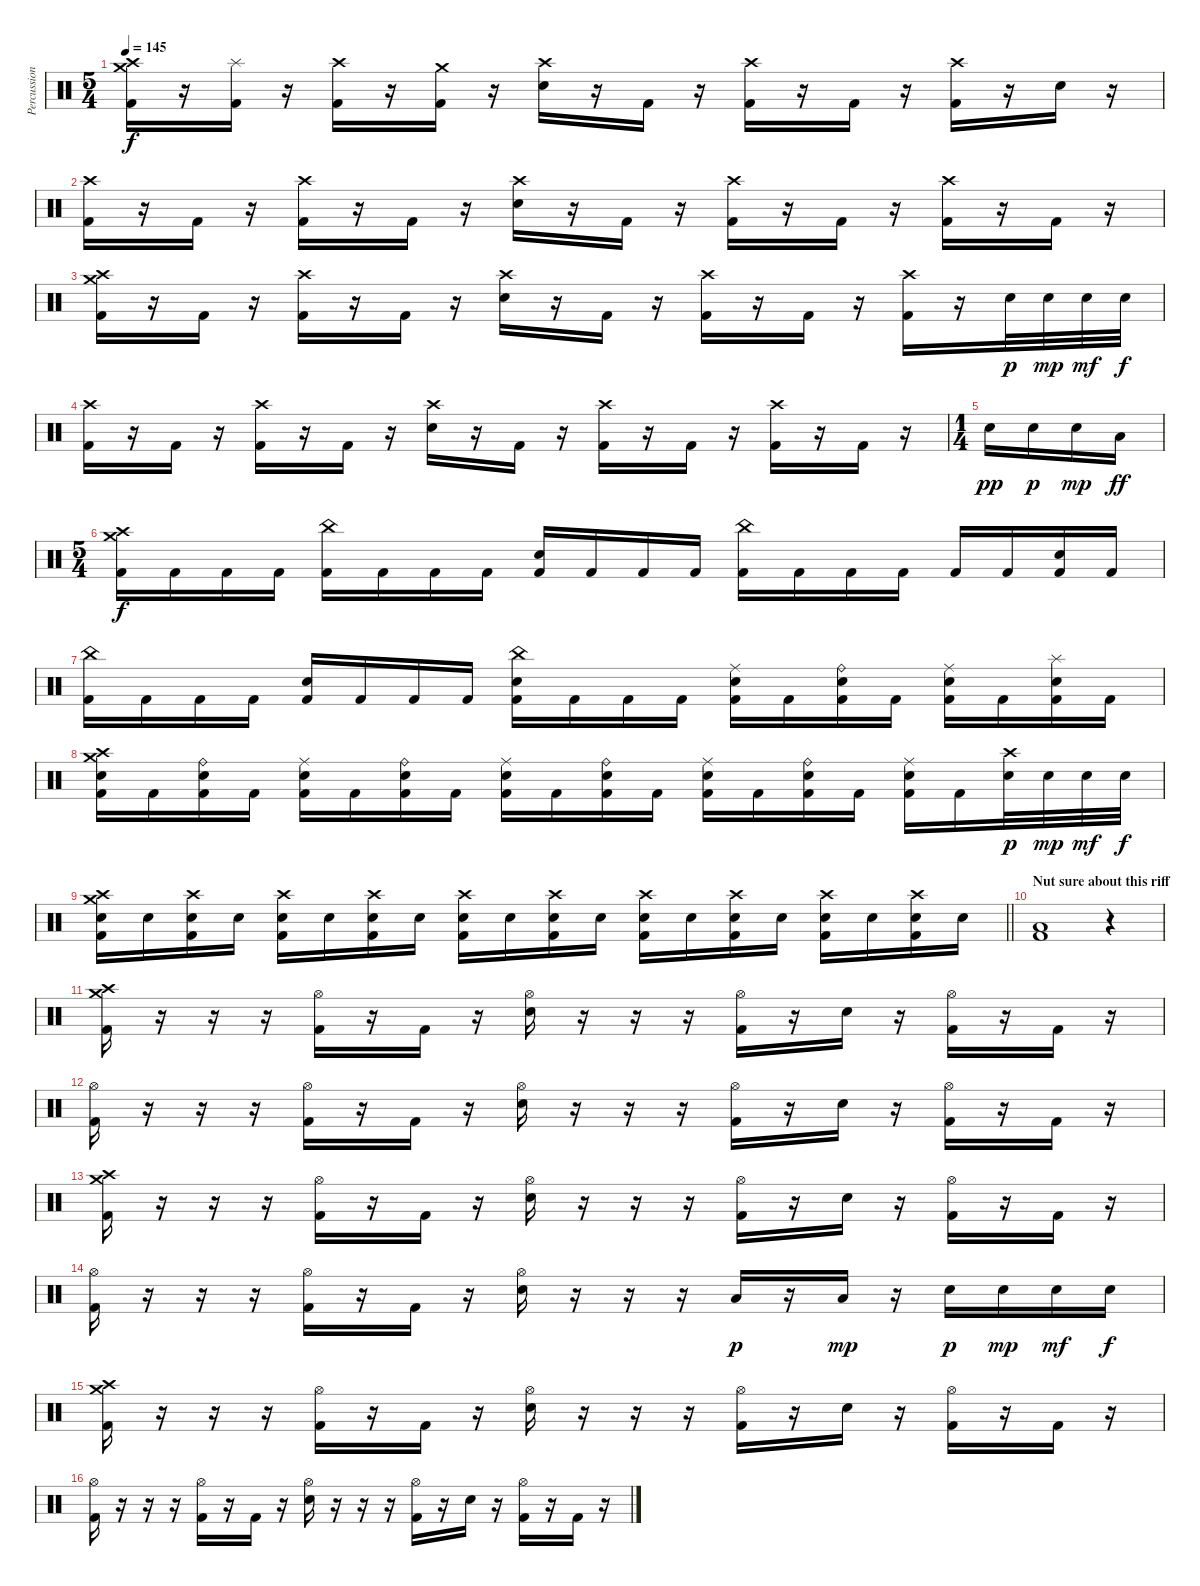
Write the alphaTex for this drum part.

\track ("Percussion" "Percussion") {instrument percussion}
\staff {score}
\articulation defaults
\ts (5 4)
\tempo 145
\clef neutral
\ks c
("Crash high (hit)" "Crash medium (hit)" "Kick (hit) 2").16{dy f} r.16 ("Splash (hit)" "Kick (hit) 2").16 r.16 ("Crash high (hit)" "Kick (hit) 2").16 r.16 ("Crash medium (hit)" "Kick (hit) 2").16 r.16 ("Crash high (hit)" "Snare (hit) 2").16 r.16 "Kick (hit) 2".16 r.16 ("Crash high (hit)" "Kick (hit) 2").16 r.16 "Kick (hit) 2".16 r.16 ("Crash high (hit)" "Kick (hit) 2").16 r.16 "Snare (hit) 2".16 r.16 |
("Crash high (hit)" "Kick (hit) 2").16 r.16 "Kick (hit) 2".16 r.16 ("Crash high (hit)" "Kick (hit) 2").16 r.16 "Kick (hit) 2".16 r.16 ("Crash high (hit)" "Snare (hit) 2").16 r.16 "Kick (hit) 2".16 r.16 ("Crash high (hit)" "Kick (hit) 2").16 r.16 "Kick (hit) 2".16 r.16 ("Crash high (hit)" "Kick (hit) 2").16 r.16 "Kick (hit) 2".16 r.16 |
("Crash high (hit)" "Crash medium (hit)" "Kick (hit) 2").16 r.16 "Kick (hit) 2".16 r.16 ("Crash high (hit)" "Kick (hit) 2").16 r.16 "Kick (hit) 2".16 r.16 ("Crash high (hit)" "Snare (hit) 2").16 r.16 "Kick (hit) 2".16 r.16 ("Crash high (hit)" "Kick (hit) 2").16 r.16 "Kick (hit) 2".16 r.16 ("Crash high (hit)" "Kick (hit) 2").16 r.16 "Snare (hit) 2".32{dy p} "Snare (hit) 2".32{dy mp} "Snare (hit) 2".32{dy mf} "Snare (hit) 2".32{dy f} |
("Crash high (hit)" "Kick (hit) 2").16 r.16 "Kick (hit) 2".16 r.16 ("Crash high (hit)" "Kick (hit) 2").16 r.16 "Kick (hit) 2".16 r.16 ("Crash high (hit)" "Snare (hit) 2").16 r.16 "Kick (hit) 2".16 r.16 ("Crash high (hit)" "Kick (hit) 2").16 r.16 "Kick (hit) 2".16 r.16 ("Crash high (hit)" "Kick (hit) 2").16 r.16 "Kick (hit) 2".16 r.16 |
\ts (1 4)
"Snare (hit) 2".16{dy pp} "Snare (hit) 2".16{dy p} "Snare (hit) 2".16{dy mp} "Low Tom (hit)".16{dy ff} |
\ts (5 4)
("Crash high (hit)" "Crash medium (hit)" "Kick (hit) 2").16{dy f} "Kick (hit) 2".16 "Kick (hit) 2".16 "Kick (hit) 2".16 ("China (hit)" "Kick (hit) 2").16 "Kick (hit) 2".16 "Kick (hit) 2".16 "Kick (hit) 2".16 ("Snare (hit) 2" "Kick (hit) 2").16 "Kick (hit) 2".16 "Kick (hit) 2".16 "Kick (hit) 2".16 ("China (hit)" "Kick (hit) 2").16 "Kick (hit) 2".16 "Kick (hit) 2".16 "Kick (hit) 2".16 "Kick (hit) 2".16 "Kick (hit) 2".16 ("Snare (hit) 2" "Kick (hit) 2").16 "Kick (hit) 2".16 |
("China (hit)" "Kick (hit) 2").16 "Kick (hit) 2".16 "Kick (hit) 2".16 "Kick (hit) 2".16 ("Snare (hit) 2" "Kick (hit) 2").16 "Kick (hit) 2".16 "Kick (hit) 2".16 "Kick (hit) 2".16 ("China (hit)" "Snare (hit) 2" "Kick (hit) 2").16 "Kick (hit) 2".16 "Kick (hit) 2".16 "Kick (hit) 2".16 ("Ride (middle)" "Snare (hit) 2" "Kick (hit) 2").16 "Kick (hit) 2".16 ("Ride (bell)" "Snare (hit) 2" "Kick (hit) 2").16 "Kick (hit) 2".16 ("Ride (middle)" "Snare (hit) 2" "Kick (hit) 2").16 "Kick (hit) 2".16 ("Splash (hit)" "Snare (hit) 2" "Kick (hit) 2").16 "Kick (hit) 2".16 |
("Crash high (hit)" "Crash medium (hit)" "Snare (hit) 2" "Kick (hit) 2").16 "Kick (hit) 2".16 ("Ride (bell)" "Snare (hit) 2" "Kick (hit) 2").16 "Kick (hit) 2".16 ("Ride (middle)" "Snare (hit) 2" "Kick (hit) 2").16 "Kick (hit) 2".16 ("Ride (bell)" "Snare (hit) 2" "Kick (hit) 2").16 "Kick (hit) 2".16 ("Ride (middle)" "Snare (hit) 2" "Kick (hit) 2").16 "Kick (hit) 2".16 ("Ride (bell)" "Snare (hit) 2" "Kick (hit) 2").16 "Kick (hit) 2".16 ("Ride (middle)" "Snare (hit) 2" "Kick (hit) 2").16 "Kick (hit) 2".16 ("Ride (bell)" "Snare (hit) 2" "Kick (hit) 2").16 "Kick (hit) 2".16 ("Ride (middle)" "Snare (hit) 2" "Kick (hit) 2").16 "Kick (hit) 2".16 ("Crash high (hit)" "Snare (hit) 2").32{dy p} "Snare (hit) 2".32{dy mp} "Snare (hit) 2".32{dy mf} "Snare (hit) 2".32{dy f} |
\barLineRight lightlight
("Crash high (hit)" "Crash medium (hit)" "Snare (hit) 2" "Kick (hit) 2").16 "Snare (hit) 2".16 ("Crash high (hit)" "Snare (hit) 2" "Kick (hit) 2").16 "Snare (hit) 2".16 ("Crash high (hit)" "Snare (hit) 2" "Kick (hit) 2").16 "Snare (hit) 2".16 ("Crash high (hit)" "Snare (hit) 2" "Kick (hit) 2").16 "Snare (hit) 2".16 ("Crash high (hit)" "Snare (hit) 2" "Kick (hit) 2").16 "Snare (hit) 2".16 ("Crash high (hit)" "Snare (hit) 2" "Kick (hit) 2").16 "Snare (hit) 2".16 ("Crash high (hit)" "Snare (hit) 2" "Kick (hit) 2").16 "Snare (hit) 2".16 ("Crash high (hit)" "Snare (hit) 2" "Kick (hit) 2").16 "Snare (hit) 2".16 ("Crash high (hit)" "Snare (hit) 2" "Kick (hit) 2").16 "Snare (hit) 2".16 ("Crash high (hit)" "Snare (hit) 2" "Kick (hit) 2").16 "Snare (hit) 2".16 |
\section ("" "Nut sure about this riff")
("Low Floor Tom (hit)" "Kick (hit) 2").1 r.4 |
("Crash medium (hit)" "Crash high (hit)" "Kick (hit) 2").16 r.16 r.16 r.16 ("Hi-Hat (open)" "Kick (hit) 2").16 r.16 "Kick (hit) 2".16 r.16 ("Hi-Hat (open)" "Snare (hit) 2").16 r.16 r.16 r.16 ("Hi-Hat (open)" "Kick (hit) 2").16 r.16 "Snare (hit) 2".16 r.16 ("Hi-Hat (open)" "Kick (hit) 2").16 r.16 "Kick (hit) 2".16 r.16 |
("Hi-Hat (open)" "Kick (hit) 2").16 r.16 r.16 r.16 ("Hi-Hat (open)" "Kick (hit) 2").16 r.16 "Kick (hit) 2".16 r.16 ("Hi-Hat (open)" "Snare (hit) 2").16 r.16 r.16 r.16 ("Hi-Hat (open)" "Kick (hit) 2").16 r.16 "Snare (hit) 2".16 r.16 ("Hi-Hat (open)" "Kick (hit) 2").16 r.16 "Kick (hit) 2".16 r.16 |
("Crash medium (hit)" "Crash high (hit)" "Kick (hit) 2").16 r.16 r.16 r.16 ("Hi-Hat (open)" "Kick (hit) 2").16 r.16 "Kick (hit) 2".16 r.16 ("Hi-Hat (open)" "Snare (hit) 2").16 r.16 r.16 r.16 ("Hi-Hat (open)" "Kick (hit) 2").16 r.16 "Snare (hit) 2".16 r.16 ("Hi-Hat (open)" "Kick (hit) 2").16 r.16 "Kick (hit) 2".16 r.16 |
("Hi-Hat (open)" "Kick (hit) 2").16 r.16 r.16 r.16 ("Hi-Hat (open)" "Kick (hit) 2").16 r.16 "Kick (hit) 2".16 r.16 ("Hi-Hat (open)" "Snare (hit) 2").16 r.16 r.16 r.16 "Low Floor Tom (hit)".16{dy p} r.16 "Low Floor Tom (hit)".16{dy mp} r.16 "Snare (hit) 2".16{dy p} "Snare (hit) 2".16{dy mp} "Snare (hit) 2".16{dy mf} "Snare (hit) 2".16{dy f} |
("Crash medium (hit)" "Crash high (hit)" "Kick (hit) 2").16 r.16 r.16 r.16 ("Hi-Hat (open)" "Kick (hit) 2").16 r.16 "Kick (hit) 2".16 r.16 ("Hi-Hat (open)" "Snare (hit) 2").16 r.16 r.16 r.16 ("Hi-Hat (open)" "Kick (hit) 2").16 r.16 "Snare (hit) 2".16 r.16 ("Hi-Hat (open)" "Kick (hit) 2").16 r.16 "Kick (hit) 2".16 r.16 |
("Hi-Hat (open)" "Kick (hit) 2").16 r.16 r.16 r.16 ("Hi-Hat (open)" "Kick (hit) 2").16 r.16 "Kick (hit) 2".16 r.16 ("Hi-Hat (open)" "Snare (hit) 2").16 r.16 r.16 r.16 ("Hi-Hat (open)" "Kick (hit) 2").16 r.16 "Snare (hit) 2".16 r.16 ("Hi-Hat (open)" "Kick (hit) 2").16 r.16 "Kick (hit) 2".16 r.16
